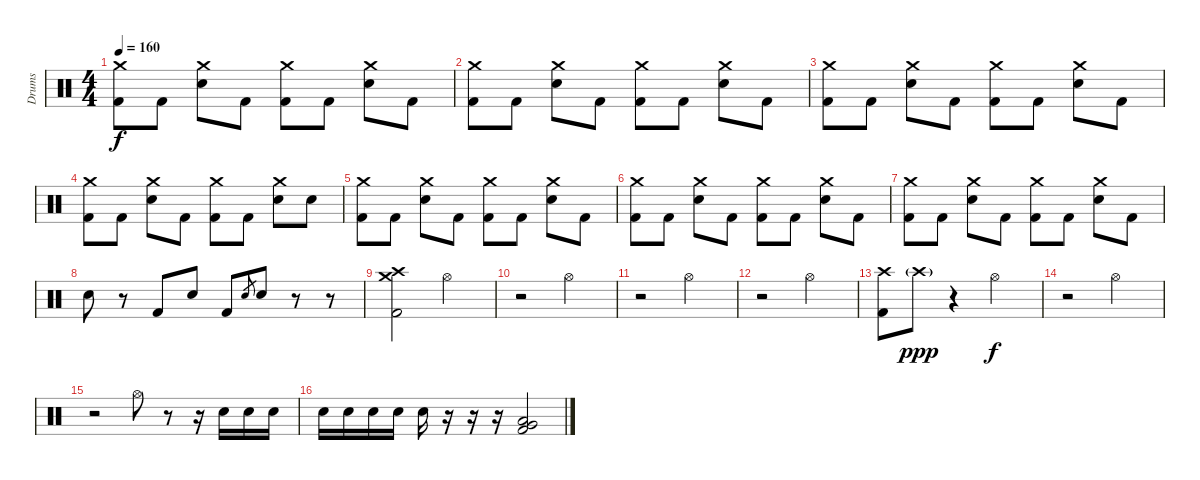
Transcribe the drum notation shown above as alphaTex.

\track ("Drums" "Drums") {instrument percussion}
\staff {score}
\articulation defaults
\ts (4 4)
\tempo 160
\clef neutral
\ks c
("Crash medium (hit)" "Kick (hit) 2").8{dy f} "Kick (hit) 2".8 ("Crash medium (hit)" "Electric Snare (hit)").8 "Kick (hit) 2".8 ("Crash medium (hit)" "Kick (hit) 2").8 "Kick (hit) 2".8 ("Crash medium (hit)" "Electric Snare (hit)").8 "Kick (hit) 2".8 |
("Crash medium (hit)" "Kick (hit) 2").8 "Kick (hit) 2".8 ("Crash medium (hit)" "Electric Snare (hit)").8 "Kick (hit) 2".8 ("Crash medium (hit)" "Kick (hit) 2").8 "Kick (hit) 2".8 ("Crash medium (hit)" "Electric Snare (hit)").8 "Kick (hit) 2".8 |
("Crash medium (hit)" "Kick (hit) 2").8 "Kick (hit) 2".8 ("Crash medium (hit)" "Electric Snare (hit)").8 "Kick (hit) 2".8 ("Crash medium (hit)" "Kick (hit) 2").8 "Kick (hit) 2".8 ("Crash medium (hit)" "Electric Snare (hit)").8 "Kick (hit) 2".8 |
("Crash medium (hit)" "Kick (hit) 2").8 "Kick (hit) 2".8 ("Crash medium (hit)" "Electric Snare (hit)").8 "Kick (hit) 2".8 ("Crash medium (hit)" "Kick (hit) 2").8 "Kick (hit) 2".8 ("Crash medium (hit)" "Electric Snare (hit)").8 "Electric Snare (hit)".8 |
("Crash medium (hit)" "Kick (hit) 2").8 "Kick (hit) 2".8 ("Crash medium (hit)" "Electric Snare (hit)").8 "Kick (hit) 2".8 ("Crash medium (hit)" "Kick (hit) 2").8 "Kick (hit) 2".8 ("Crash medium (hit)" "Electric Snare (hit)").8 "Kick (hit) 2".8 |
("Crash medium (hit)" "Kick (hit) 2").8 "Kick (hit) 2".8 ("Crash medium (hit)" "Electric Snare (hit)").8 "Kick (hit) 2".8 ("Crash medium (hit)" "Kick (hit) 2").8 "Kick (hit) 2".8 ("Crash medium (hit)" "Electric Snare (hit)").8 "Kick (hit) 2".8 |
("Crash medium (hit)" "Kick (hit) 2").8 "Kick (hit) 2".8 ("Crash medium (hit)" "Electric Snare (hit)").8 "Kick (hit) 2".8 ("Crash medium (hit)" "Kick (hit) 2").8 "Kick (hit) 2".8 ("Crash medium (hit)" "Electric Snare (hit)").8 "Kick (hit) 2".8 |
"Electric Snare (hit)".8 r.8 "Kick (hit) 2".8 "Electric Snare (hit)".8 "Kick (hit) 2".8 "Electric Snare (hit)".8{gr} "Electric Snare (hit)".8 r.8 r.8 |
("Crash high (hit)" "Crash medium (hit)" "Kick (hit) 2").2 "Hi-Hat (open)".2 |
r.2 "Hi-Hat (open)".2 |
r.2 "Hi-Hat (open)".2 |
r.2 "Hi-Hat (open)".2 |
("Crash high (hit)" "Kick (hit) 2").8 "Crash high (hit)"{g}.8{dy ppp} r.4 "Hi-Hat (open)".2{dy f} |
r.2 "Hi-Hat (open)".2 |
r.2 "Hi-Hat (open)".8 r.8 r.16 "Electric Snare (hit)".16 "Electric Snare (hit)".16 "Electric Snare (hit)".16 |
"Electric Snare (hit)".16 "Electric Snare (hit)".16 "Electric Snare (hit)".16 "Electric Snare (hit)".16 "Electric Snare (hit)".16 r.16 r.16 r.16 ("Low Floor Tom (hit)" "Very Low Tom (hit)" "Kick (hit) 2").2
